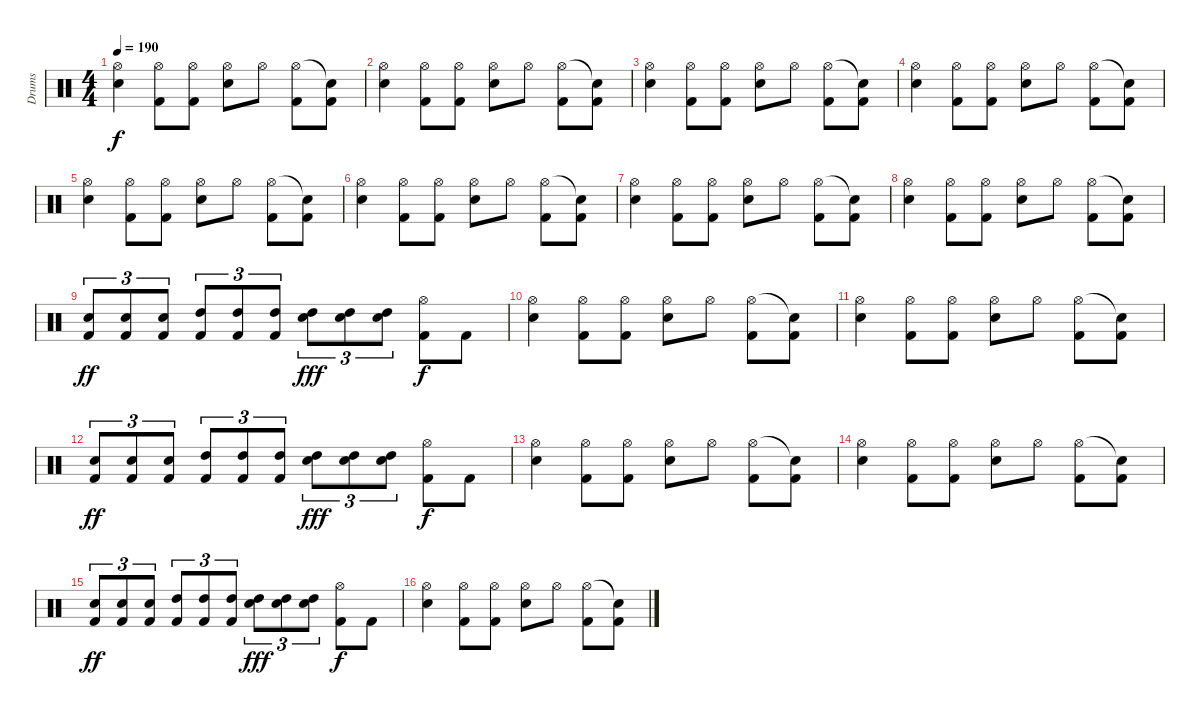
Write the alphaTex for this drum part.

\track ("Drums" "Drums") {instrument percussion}
\staff {score}
\articulation defaults
\ts (4 4)
\tempo 190
\clef neutral
\ks c
("Electric Snare (hit)" "Hi-Hat (open)").4{dy f} ("Hi-Hat (open)" "Kick (hit) 2").8 ("Hi-Hat (open)" "Kick (hit) 2").8 ("Hi-Hat (open)" "Electric Snare (hit)").8 "Hi-Hat (open)".8 ("Kick (hit) 2" "Hi-Hat (open)").8 ("Kick (hit) 2" "Snare (hit)"{t}).8 |
("Electric Snare (hit)" "Hi-Hat (open)").4 ("Hi-Hat (open)" "Kick (hit) 2").8 ("Hi-Hat (open)" "Kick (hit) 2").8 ("Hi-Hat (open)" "Electric Snare (hit)").8 "Hi-Hat (open)".8 ("Kick (hit) 2" "Hi-Hat (open)").8 ("Kick (hit) 2" "Snare (hit)"{t}).8 |
("Electric Snare (hit)" "Hi-Hat (open)").4 ("Hi-Hat (open)" "Kick (hit) 2").8 ("Hi-Hat (open)" "Kick (hit) 2").8 ("Hi-Hat (open)" "Electric Snare (hit)").8 "Hi-Hat (open)".8 ("Kick (hit) 2" "Hi-Hat (open)").8 ("Kick (hit) 2" "Snare (hit)"{t}).8 |
("Electric Snare (hit)" "Hi-Hat (open)").4 ("Hi-Hat (open)" "Kick (hit) 2").8 ("Hi-Hat (open)" "Kick (hit) 2").8 ("Hi-Hat (open)" "Electric Snare (hit)").8 "Hi-Hat (open)".8 ("Kick (hit) 2" "Hi-Hat (open)").8 ("Kick (hit) 2" "Snare (hit)"{t}).8 |
("Electric Snare (hit)" "Hi-Hat (open)").4 ("Hi-Hat (open)" "Kick (hit) 2").8 ("Hi-Hat (open)" "Kick (hit) 2").8 ("Hi-Hat (open)" "Electric Snare (hit)").8 "Hi-Hat (open)".8 ("Kick (hit) 2" "Hi-Hat (open)").8 ("Kick (hit) 2" "Snare (hit)"{t}).8 |
("Electric Snare (hit)" "Hi-Hat (open)").4 ("Hi-Hat (open)" "Kick (hit) 2").8 ("Hi-Hat (open)" "Kick (hit) 2").8 ("Hi-Hat (open)" "Electric Snare (hit)").8 "Hi-Hat (open)".8 ("Kick (hit) 2" "Hi-Hat (open)").8 ("Kick (hit) 2" "Snare (hit)"{t}).8 |
("Electric Snare (hit)" "Hi-Hat (open)").4 ("Hi-Hat (open)" "Kick (hit) 2").8 ("Hi-Hat (open)" "Kick (hit) 2").8 ("Hi-Hat (open)" "Electric Snare (hit)").8 "Hi-Hat (open)".8 ("Kick (hit) 2" "Hi-Hat (open)").8 ("Kick (hit) 2" "Snare (hit)"{t}).8 |
("Electric Snare (hit)" "Hi-Hat (open)").4 ("Hi-Hat (open)" "Kick (hit) 2").8 ("Hi-Hat (open)" "Kick (hit) 2").8 ("Hi-Hat (open)" "Electric Snare (hit)").8 "Hi-Hat (open)".8 ("Kick (hit) 2" "Hi-Hat (open)").8 ("Kick (hit) 2" "Snare (hit)"{t}).8 |
("Electric Snare (hit)" "Kick (hit) 2").8{tu (3 2) dy ff} ("Electric Snare (hit)" "Kick (hit) 2").8{tu (3 2)} ("Electric Snare (hit)" "Kick (hit) 2").8{tu (3 2)} ("High Tom (hit)" "Kick (hit) 2").8{tu (3 2)} ("High Tom (hit)" "Kick (hit) 2").8{tu (3 2)} ("High Tom (hit)" "Kick (hit) 2").8{tu (3 2)} ("High Tom (hit)" "Electric Snare (hit)").8{tu (3 2) dy fff} ("High Tom (hit)" "Electric Snare (hit)").8{tu (3 2)} ("High Tom (hit)" "Electric Snare (hit)").8{tu (3 2)} ("Kick (hit) 2" "Hi-Hat (open)").8{dy f} "Kick (hit) 2".8 |
("Electric Snare (hit)" "Hi-Hat (open)").4 ("Hi-Hat (open)" "Kick (hit) 2").8 ("Hi-Hat (open)" "Kick (hit) 2").8 ("Hi-Hat (open)" "Electric Snare (hit)").8 "Hi-Hat (open)".8 ("Kick (hit) 2" "Hi-Hat (open)").8 ("Kick (hit) 2" "Snare (hit)"{t}).8 |
("Electric Snare (hit)" "Hi-Hat (open)").4 ("Hi-Hat (open)" "Kick (hit) 2").8 ("Hi-Hat (open)" "Kick (hit) 2").8 ("Hi-Hat (open)" "Electric Snare (hit)").8 "Hi-Hat (open)".8 ("Kick (hit) 2" "Hi-Hat (open)").8 ("Kick (hit) 2" "Snare (hit)"{t}).8 |
("Electric Snare (hit)" "Kick (hit) 2").8{tu (3 2) dy ff} ("Electric Snare (hit)" "Kick (hit) 2").8{tu (3 2)} ("Electric Snare (hit)" "Kick (hit) 2").8{tu (3 2)} ("High Tom (hit)" "Kick (hit) 2").8{tu (3 2)} ("High Tom (hit)" "Kick (hit) 2").8{tu (3 2)} ("High Tom (hit)" "Kick (hit) 2").8{tu (3 2)} ("High Tom (hit)" "Electric Snare (hit)").8{tu (3 2) dy fff} ("High Tom (hit)" "Electric Snare (hit)").8{tu (3 2)} ("High Tom (hit)" "Electric Snare (hit)").8{tu (3 2)} ("Kick (hit) 2" "Hi-Hat (open)").8{dy f} "Kick (hit) 2".8 |
("Electric Snare (hit)" "Hi-Hat (open)").4 ("Hi-Hat (open)" "Kick (hit) 2").8 ("Hi-Hat (open)" "Kick (hit) 2").8 ("Hi-Hat (open)" "Electric Snare (hit)").8 "Hi-Hat (open)".8 ("Kick (hit) 2" "Hi-Hat (open)").8 ("Kick (hit) 2" "Snare (hit)"{t}).8 |
("Electric Snare (hit)" "Hi-Hat (open)").4 ("Hi-Hat (open)" "Kick (hit) 2").8 ("Hi-Hat (open)" "Kick (hit) 2").8 ("Hi-Hat (open)" "Electric Snare (hit)").8 "Hi-Hat (open)".8 ("Kick (hit) 2" "Hi-Hat (open)").8 ("Kick (hit) 2" "Snare (hit)"{t}).8 |
("Electric Snare (hit)" "Kick (hit) 2").8{tu (3 2) dy ff} ("Electric Snare (hit)" "Kick (hit) 2").8{tu (3 2)} ("Electric Snare (hit)" "Kick (hit) 2").8{tu (3 2)} ("High Tom (hit)" "Kick (hit) 2").8{tu (3 2)} ("High Tom (hit)" "Kick (hit) 2").8{tu (3 2)} ("High Tom (hit)" "Kick (hit) 2").8{tu (3 2)} ("High Tom (hit)" "Electric Snare (hit)").8{tu (3 2) dy fff} ("High Tom (hit)" "Electric Snare (hit)").8{tu (3 2)} ("High Tom (hit)" "Electric Snare (hit)").8{tu (3 2)} ("Kick (hit) 2" "Hi-Hat (open)").8{dy f} "Kick (hit) 2".8 |
("Electric Snare (hit)" "Hi-Hat (open)").4 ("Hi-Hat (open)" "Kick (hit) 2").8 ("Hi-Hat (open)" "Kick (hit) 2").8 ("Hi-Hat (open)" "Electric Snare (hit)").8 "Hi-Hat (open)".8 ("Kick (hit) 2" "Hi-Hat (open)").8 ("Kick (hit) 2" "Snare (hit)"{t}).8
